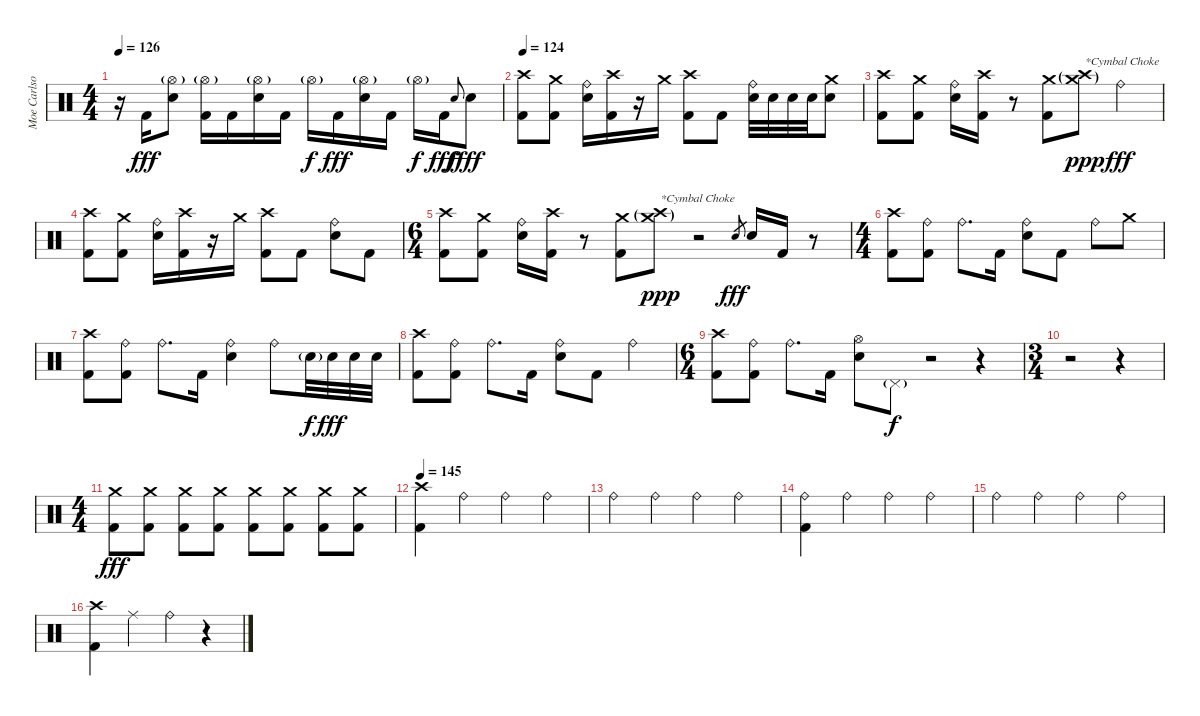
\track ("Moe Carlson" "Moe Carlso") {instrument percussion}
\staff {score}
\articulation defaults
\ts (4 4)
\tempo 126
\clef neutral
\ks c
r.16{dy fff} "Kick (hit) 2".16 ("Hi-Hat (open)"{g} "Electric Snare (hit)").8 ("Hi-Hat (open)"{g} "Kick (hit) 2").16 "Kick (hit) 2".16 ("Hi-Hat (open)"{g} "Electric Snare (hit)").16 "Kick (hit) 2".16 "Hi-Hat (open)"{g}.16{dy f} "Kick (hit) 2".16{dy fff} ("Hi-Hat (open)"{g} "Electric Snare (hit)").16 "Kick (hit) 2".16 "Hi-Hat (open)"{g}.16{dy f} "Kick (hit) 2".16{dy fff} "Electric Snare (hit)".8{gr onbeat dy f} "Electric Snare (hit)".8{dy fff} |
\tempo 124
("Crash high (hit)" "Kick (hit) 2").8 ("Crash medium (hit)" "Kick (hit) 2").8 ("Ride (bell)" "Electric Snare (hit)").16 ("Crash high (hit)" "Kick (hit) 2").16 r.16 "Crash medium (hit)".16 ("Crash high (hit)" "Kick (hit) 2").8 "Kick (hit) 2".8 ("Ride (bell)" "Electric Snare (hit)").32 "Electric Snare (hit)".32 "Electric Snare (hit)".32 "Electric Snare (hit)".32 ("Crash medium (hit)" "Electric Snare (hit)").8 |
("Crash high (hit)" "Kick (hit) 2").8 ("Crash medium (hit)" "Kick (hit) 2").8 ("Ride (bell)" "Electric Snare (hit)").16 ("Crash high (hit)" "Kick (hit) 2").16 r.8 ("Crash medium (hit)" "Kick (hit) 2").8 ("Crash medium (hit)"{g} "Crash high (hit)"{g}).8{txt "*Cymbal Choke" dy ppp} "Ride (bell)".4{dy fff} |
("Crash high (hit)" "Kick (hit) 2").8 ("Crash medium (hit)" "Kick (hit) 2").8 ("Ride (bell)" "Electric Snare (hit)").16 ("Crash high (hit)" "Kick (hit) 2").16 r.16 "Crash medium (hit)".16 ("Crash high (hit)" "Kick (hit) 2").8 "Kick (hit) 2".8 ("Ride (bell)" "Electric Snare (hit)").8 "Kick (hit) 2".8 |
\ts (6 4)
("Crash high (hit)" "Kick (hit) 2").8 ("Crash medium (hit)" "Kick (hit) 2").8 ("Ride (bell)" "Electric Snare (hit)").16 ("Crash high (hit)" "Kick (hit) 2").16 r.8 ("Crash medium (hit)" "Kick (hit) 2").8 ("Crash medium (hit)"{g} "Crash high (hit)"{g}).8{txt "*Cymbal Choke" dy ppp} r.2 "Electric Snare (hit)".8{gr dy fff} "Electric Snare (hit)".16 "Kick (hit) 2".16 r.8 |
\ts (4 4)
("Crash high (hit)" "Kick (hit) 2").8 ("Ride (bell)" "Kick (hit) 2").8 "Ride (bell)".8{d} "Kick (hit) 2".16 ("Ride (bell)" "Electric Snare (hit)").8 "Kick (hit) 2".8 "Ride (bell)".8 "Crash medium (hit)".8 |
("Crash high (hit)" "Kick (hit) 2").8 ("Ride (bell)" "Kick (hit) 2").8 "Ride (bell)".8{d} "Kick (hit) 2".16 ("Ride (bell)" "Electric Snare (hit)").4 "Ride (bell)".8 "Electric Snare (hit)"{g}.32{dy f} "Electric Snare (hit)".32{dy fff} "Electric Snare (hit)".32 "Electric Snare (hit)".32 |
("Crash high (hit)" "Kick (hit) 2").8 ("Ride (bell)" "Kick (hit) 2").8 "Ride (bell)".8{d} "Kick (hit) 2".16 ("Ride (bell)" "Electric Snare (hit)").8 "Kick (hit) 2".8 "Ride (bell)".4 |
\ts (6 4)
("Crash high (hit)" "Kick (hit) 2").8 ("Ride (bell)" "Kick (hit) 2").8 "Ride (bell)".8{d} "Kick (hit) 2".16 ("Hi-Hat (open)" "Electric Snare (hit)").8 "Pedal Hi-Hat (hit)"{g}.8{dy f} r.2 r.4 |
\ts (3 4)
r.2 r.4 |
\ts (4 4)
("Crash medium (hit)" "Kick (hit) 2").8{dy fff} ("Crash medium (hit)" "Kick (hit) 2").8 ("Crash medium (hit)" "Kick (hit) 2").8 ("Crash medium (hit)" "Kick (hit) 2").8 ("Crash medium (hit)" "Kick (hit) 2").8 ("Crash medium (hit)" "Kick (hit) 2").8 ("Crash medium (hit)" "Kick (hit) 2").8 ("Crash medium (hit)" "Kick (hit) 2").8 |
\tempo 145
("Crash high (hit)" "Kick (hit) 2").4 "Ride (bell)".4 "Ride (bell)".4 "Ride (bell)".4 |
"Ride (bell)".4 "Ride (bell)".4 "Ride (bell)".4 "Ride (bell)".4 |
("Ride (bell)" "Kick (hit) 2").4 "Ride (bell)".4 "Ride (bell)".4 "Ride (bell)".4 |
"Ride (bell)".4 "Ride (bell)".4 "Ride (bell)".4 "Ride (bell)".4 |
("Crash high (hit)" "Kick (hit) 2").4 "Ride (middle)".4 "Ride (bell)".4 r.4
